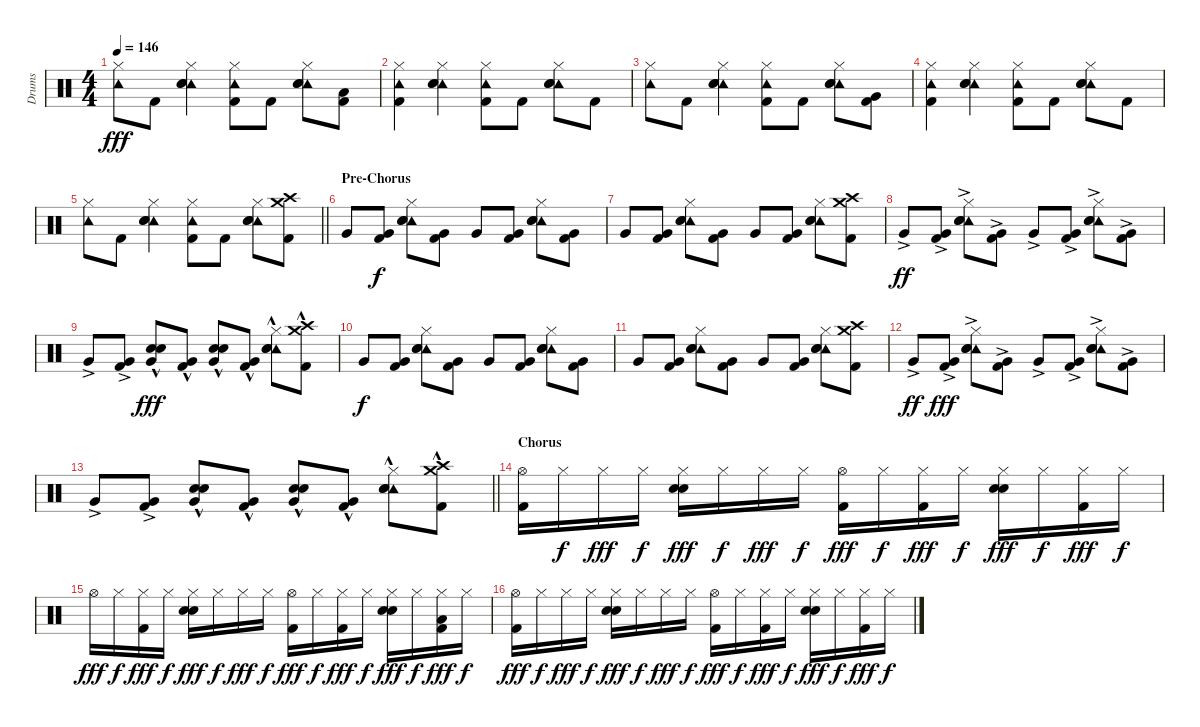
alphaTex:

\track ("Drums" "Drums") {instrument percussion}
\staff {score}
\articulation defaults
\ts (4 4)
\tempo 146
\clef neutral
\ks c
("Hi-Hat (closed)" "Tambourine (hit)").8{dy fff} "Kick (hit) 2".8 ("Hi-Hat (closed)" "Tambourine (hit)" "Electric Snare (hit)" "Electric Snare (hit)").4 ("Hi-Hat (closed)" "Tambourine (hit)" "Kick (hit) 2").8 "Kick (hit) 2".8 ("Hi-Hat (closed)" "Tambourine (hit)" "Electric Snare (hit)" "Electric Snare (hit)").8 ("Low Tom (hit)" "Kick (hit) 2").8 |
("Hi-Hat (closed)" "Tambourine (hit)" "Kick (hit) 2").4 ("Hi-Hat (closed)" "Tambourine (hit)" "Electric Snare (hit)" "Electric Snare (hit)").4 ("Hi-Hat (closed)" "Tambourine (hit)" "Kick (hit) 2").8 "Kick (hit) 2".8 ("Hi-Hat (closed)" "Tambourine (hit)" "Electric Snare (hit)" "Electric Snare (hit)").8 "Kick (hit) 2".8 |
("Hi-Hat (closed)" "Tambourine (hit)").8 "Kick (hit) 2".8 ("Hi-Hat (closed)" "Tambourine (hit)" "Electric Snare (hit)" "Electric Snare (hit)").4 ("Hi-Hat (closed)" "Tambourine (hit)" "Kick (hit) 2").8 "Kick (hit) 2".8 ("Hi-Hat (closed)" "Tambourine (hit)" "Electric Snare (hit)" "Electric Snare (hit)").8 ("Very Low Tom (hit)" "Kick (hit) 2").8 |
("Hi-Hat (closed)" "Tambourine (hit)" "Kick (hit) 2").4 ("Hi-Hat (closed)" "Tambourine (hit)" "Electric Snare (hit)" "Electric Snare (hit)").4 ("Hi-Hat (closed)" "Tambourine (hit)" "Kick (hit) 2").8 "Kick (hit) 2".8 ("Hi-Hat (closed)" "Tambourine (hit)" "Electric Snare (hit)" "Electric Snare (hit)").8 "Kick (hit) 2".8 |
\barLineRight lightlight
("Hi-Hat (closed)" "Tambourine (hit)").8 "Kick (hit) 2".8 ("Hi-Hat (closed)" "Tambourine (hit)" "Electric Snare (hit)" "Electric Snare (hit)").4 ("Hi-Hat (closed)" "Tambourine (hit)" "Kick (hit) 2").8 "Kick (hit) 2".8 ("Hi-Hat (closed)" "Tambourine (hit)" "Electric Snare (hit)" "Electric Snare (hit)").8 ("Crash high (hit)" "Crash medium (hit)" "Kick (hit) 2").8 |
\section ("" "Pre-Chorus")
"Very Low Tom (hit)".8 ("Very Low Tom (hit)" "Kick (hit) 2").8{dy f} ("Hi-Hat (closed)" "Tambourine (hit)" "Electric Snare (hit)" "Electric Snare (hit)").8 ("Very Low Tom (hit)" "Kick (hit) 2").8 "Very Low Tom (hit)".8 ("Very Low Tom (hit)" "Kick (hit) 2").8 ("Hi-Hat (closed)" "Tambourine (hit)" "Electric Snare (hit)" "Electric Snare (hit)").8 ("Very Low Tom (hit)" "Kick (hit) 2").8 |
"Very Low Tom (hit)".8 ("Very Low Tom (hit)" "Kick (hit) 2").8 ("Hi-Hat (closed)" "Tambourine (hit)" "Electric Snare (hit)" "Electric Snare (hit)").8 ("Very Low Tom (hit)" "Kick (hit) 2").8 "Very Low Tom (hit)".8 ("Very Low Tom (hit)" "Kick (hit) 2").8 ("Hi-Hat (closed)" "Tambourine (hit)" "Electric Snare (hit)" "Electric Snare (hit)").8 ("Crash high (hit)" "Crash medium (hit)" "Kick (hit) 2").8 |
"Very Low Tom (hit)"{ac}.8{dy ff} ("Very Low Tom (hit)"{ac} "Kick (hit) 2"{ac}).8 ("Hi-Hat (closed)" "Tambourine (hit)"{ac} "Electric Snare (hit)"{ac} "Electric Snare (hit)"{ac}).8 ("Very Low Tom (hit)"{ac} "Kick (hit) 2"{ac}).8 "Very Low Tom (hit)"{ac}.8 ("Very Low Tom (hit)"{ac} "Kick (hit) 2"{ac}).8 ("Hi-Hat (closed)" "Tambourine (hit)"{ac} "Electric Snare (hit)"{ac} "Electric Snare (hit)"{ac}).8 ("Very Low Tom (hit)"{ac} "Kick (hit) 2"{ac}).8 |
"Very Low Tom (hit)"{ac}.8 ("Very Low Tom (hit)"{ac} "Kick (hit) 2"{ac}).8 ("Electric Snare (hit)"{hac} "Electric Snare (hit)"{hac} "Very Low Tom (hit)"{hac}).8{dy fff} ("Very Low Tom (hit)"{hac} "Kick (hit) 2"{hac}).8 ("Electric Snare (hit)"{hac} "Electric Snare (hit)"{hac} "Very Low Tom (hit)"{hac}).8 ("Very Low Tom (hit)"{hac} "Kick (hit) 2"{hac}).8 ("Hi-Hat (closed)" "Tambourine (hit)"{hac} "Electric Snare (hit)"{hac} "Electric Snare (hit)"{hac}).8 ("Crash high (hit)"{hac} "Crash medium (hit)"{hac} "Kick (hit) 2"{hac}).8 |
"Very Low Tom (hit)".8{dy f} ("Very Low Tom (hit)" "Kick (hit) 2").8 ("Hi-Hat (closed)" "Tambourine (hit)" "Electric Snare (hit)" "Electric Snare (hit)").8 ("Very Low Tom (hit)" "Kick (hit) 2").8 "Very Low Tom (hit)".8 ("Very Low Tom (hit)" "Kick (hit) 2").8 ("Hi-Hat (closed)" "Tambourine (hit)" "Electric Snare (hit)" "Electric Snare (hit)").8 ("Very Low Tom (hit)" "Kick (hit) 2").8 |
"Very Low Tom (hit)".8 ("Very Low Tom (hit)" "Kick (hit) 2").8 ("Hi-Hat (closed)" "Tambourine (hit)" "Electric Snare (hit)" "Electric Snare (hit)").8 ("Very Low Tom (hit)" "Kick (hit) 2").8 "Very Low Tom (hit)".8 ("Very Low Tom (hit)" "Kick (hit) 2").8 ("Hi-Hat (closed)" "Tambourine (hit)" "Electric Snare (hit)" "Electric Snare (hit)").8 ("Crash high (hit)" "Crash medium (hit)" "Kick (hit) 2").8 |
"Very Low Tom (hit)"{ac}.8{dy ff} ("Very Low Tom (hit)"{ac} "Kick (hit) 2"{ac}).8{dy fff} ("Hi-Hat (closed)" "Tambourine (hit)"{ac} "Electric Snare (hit)"{ac} "Electric Snare (hit)"{ac}).8 ("Very Low Tom (hit)"{ac} "Kick (hit) 2"{ac}).8 "Very Low Tom (hit)"{ac}.8 ("Very Low Tom (hit)"{ac} "Kick (hit) 2"{ac}).8 ("Hi-Hat (closed)" "Tambourine (hit)"{ac} "Electric Snare (hit)"{ac} "Electric Snare (hit)"{ac}).8 ("Very Low Tom (hit)"{ac} "Kick (hit) 2"{ac}).8 |
\barLineRight lightlight "Very Low Tom (hit)"{ac}.8
("Very Low Tom (hit)"{ac} "Kick (hit) 2"{ac}).8 ("Electric Snare (hit)"{hac} "Electric Snare (hit)"{hac} "Very Low Tom (hit)"{hac}).8 ("Very Low Tom (hit)"{hac} "Kick (hit) 2"{hac}).8 ("Electric Snare (hit)"{hac} "Electric Snare (hit)"{hac} "Very Low Tom (hit)"{hac}).8 ("Very Low Tom (hit)"{hac} "Kick (hit) 2"{hac}).8 ("Hi-Hat (closed)" "Tambourine (hit)"{hac} "Electric Snare (hit)"{hac} "Electric Snare (hit)"{hac}).8 ("Crash high (hit)"{hac} "Crash medium (hit)"{hac} "Kick (hit) 2"{hac}).8 |
\section ("" "Chorus")
("Hi-Hat (open)" "Kick (hit) 2").16 "Hi-Hat (closed)".16{dy f} "Hi-Hat (closed)".16{dy fff} "Hi-Hat (closed)".16{dy f} ("Hi-Hat (closed)" "Electric Snare (hit)" "Electric Snare (hit)").16{dy fff} "Hi-Hat (closed)".16{dy f} "Hi-Hat (closed)".16{dy fff} "Hi-Hat (closed)".16{dy f} ("Hi-Hat (open)" "Kick (hit) 2").16{dy fff} "Hi-Hat (closed)".16{dy f} ("Hi-Hat (closed)" "Kick (hit) 2").16{dy fff} "Hi-Hat (closed)".16{dy f} ("Hi-Hat (closed)" "Electric Snare (hit)" "Electric Snare (hit)").16{dy fff} "Hi-Hat (closed)".16{dy f} ("Hi-Hat (closed)" "Kick (hit) 2").16{dy fff} "Hi-Hat (closed)".16{dy f} |
"Hi-Hat (open)".16{dy fff} "Hi-Hat (closed)".16{dy f} ("Hi-Hat (closed)" "Kick (hit) 2").16{dy fff} "Hi-Hat (closed)".16{dy f} ("Hi-Hat (closed)" "Electric Snare (hit)" "Electric Snare (hit)").16{dy fff} "Hi-Hat (closed)".16{dy f} "Hi-Hat (closed)".16{dy fff} "Hi-Hat (closed)".16{dy f} ("Hi-Hat (open)" "Kick (hit) 2").16{dy fff} "Hi-Hat (closed)".16{dy f} ("Hi-Hat (closed)" "Kick (hit) 2").16{dy fff} "Hi-Hat (closed)".16{dy f} ("Hi-Hat (closed)" "Electric Snare (hit)" "Electric Snare (hit)").16{dy fff} "Hi-Hat (closed)".16{dy f} ("Hi-Hat (closed)" "Low Tom (hit)" "Kick (hit) 2").16{dy fff} "Hi-Hat (closed)".16{dy f} |
("Hi-Hat (open)" "Kick (hit) 2").16{dy fff} "Hi-Hat (closed)".16{dy f} "Hi-Hat (closed)".16{dy fff} "Hi-Hat (closed)".16{dy f} ("Hi-Hat (closed)" "Electric Snare (hit)" "Electric Snare (hit)").16{dy fff} "Hi-Hat (closed)".16{dy f} "Hi-Hat (closed)".16{dy fff} "Hi-Hat (closed)".16{dy f} ("Hi-Hat (open)" "Kick (hit) 2").16{dy fff} "Hi-Hat (closed)".16{dy f} ("Hi-Hat (closed)" "Kick (hit) 2").16{dy fff} "Hi-Hat (closed)".16{dy f} ("Hi-Hat (closed)" "Electric Snare (hit)" "Electric Snare (hit)").16{dy fff} "Hi-Hat (closed)".16{dy f} ("Hi-Hat (closed)" "Kick (hit) 2").16{dy fff} "Hi-Hat (closed)".16{dy f}
